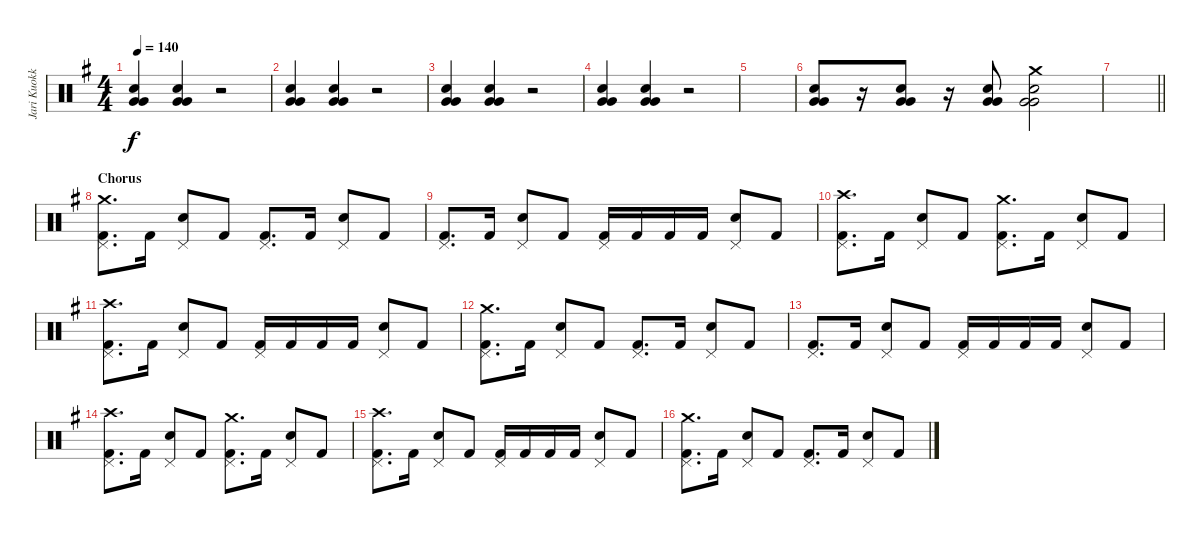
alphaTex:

\track ("Jari Kuokkanen" "Jari Kuokk") {instrument percussion}
\staff {score}
\articulation defaults
\ts (4 4)
\tempo 140
\clef neutral
\ks eminor
("Snare (hit) 2" "Very Low Tom (hit)" "Very Low Tom (hit)").4{dy f} ("Snare (hit) 2" "Very Low Tom (hit)" "Very Low Tom (hit)").4 r.2 |
("Snare (hit) 2" "Very Low Tom (hit)" "Very Low Tom (hit)").4 ("Snare (hit) 2" "Very Low Tom (hit)" "Very Low Tom (hit)").4 r.2 |
("Snare (hit) 2" "Very Low Tom (hit)" "Very Low Tom (hit)").4 ("Snare (hit) 2" "Very Low Tom (hit)" "Very Low Tom (hit)").4 r.2 |
("Snare (hit) 2" "Very Low Tom (hit)" "Very Low Tom (hit)").4 ("Snare (hit) 2" "Very Low Tom (hit)" "Very Low Tom (hit)").4 r.2 |
|
("Snare (hit) 2" "Very Low Tom (hit)" "Very Low Tom (hit)").8 r.16 ("Snare (hit) 2" "Very Low Tom (hit)" "Very Low Tom (hit)").8 r.16 ("Snare (hit) 2" "Very Low Tom (hit)" "Very Low Tom (hit)").8 ("Crash medium (hit)" "Very Low Tom (hit)" "Very Low Tom (hit)" "Snare (hit) 2").2 |
\barLineRight lightlight
|
\section ("" "Chorus")
("Pedal Hi-Hat (hit)" "Crash medium (hit)" "Kick (hit) 2").8{d} "Kick (hit) 2".16 ("Pedal Hi-Hat (hit)" "Snare (hit) 2").8 "Kick (hit) 2".8 ("Pedal Hi-Hat (hit)" "Kick (hit) 2").8{d} "Kick (hit) 2".16 ("Pedal Hi-Hat (hit)" "Snare (hit) 2").8 "Kick (hit) 2".8 |
("Pedal Hi-Hat (hit)" "Kick (hit) 2").8{d} "Kick (hit) 2".16 ("Pedal Hi-Hat (hit)" "Snare (hit) 2").8 "Kick (hit) 2".8 ("Pedal Hi-Hat (hit)" "Kick (hit) 2").16 "Kick (hit) 2".16 "Kick (hit) 2".16 "Kick (hit) 2".16 ("Pedal Hi-Hat (hit)" "Snare (hit) 2").8 "Kick (hit) 2".8 |
("Crash high (hit)" "Pedal Hi-Hat (hit)" "Kick (hit) 2").8{d} "Kick (hit) 2".16 ("Pedal Hi-Hat (hit)" "Snare (hit) 2").8 "Kick (hit) 2".8 ("Crash medium (hit)" "Pedal Hi-Hat (hit)" "Kick (hit) 2").8{d} "Kick (hit) 2".16 ("Pedal Hi-Hat (hit)" "Snare (hit) 2").8 "Kick (hit) 2".8 |
("Crash high (hit)" "Pedal Hi-Hat (hit)" "Kick (hit) 2").8{d} "Kick (hit) 2".16 ("Pedal Hi-Hat (hit)" "Snare (hit) 2").8 "Kick (hit) 2".8 ("Pedal Hi-Hat (hit)" "Kick (hit) 2").16 "Kick (hit) 2".16 "Kick (hit) 2".16 "Kick (hit) 2".16 ("Pedal Hi-Hat (hit)" "Snare (hit) 2").8 "Kick (hit) 2".8 |
("Pedal Hi-Hat (hit)" "Crash medium (hit)" "Kick (hit) 2").8{d} "Kick (hit) 2".16 ("Pedal Hi-Hat (hit)" "Snare (hit) 2").8 "Kick (hit) 2".8 ("Pedal Hi-Hat (hit)" "Kick (hit) 2").8{d} "Kick (hit) 2".16 ("Pedal Hi-Hat (hit)" "Snare (hit) 2").8 "Kick (hit) 2".8 |
("Pedal Hi-Hat (hit)" "Kick (hit) 2").8{d} "Kick (hit) 2".16 ("Pedal Hi-Hat (hit)" "Snare (hit) 2").8 "Kick (hit) 2".8 ("Pedal Hi-Hat (hit)" "Kick (hit) 2").16 "Kick (hit) 2".16 "Kick (hit) 2".16 "Kick (hit) 2".16 ("Pedal Hi-Hat (hit)" "Snare (hit) 2").8 "Kick (hit) 2".8 |
("Crash high (hit)" "Pedal Hi-Hat (hit)" "Kick (hit) 2").8{d} "Kick (hit) 2".16 ("Pedal Hi-Hat (hit)" "Snare (hit) 2").8 "Kick (hit) 2".8 ("Crash medium (hit)" "Pedal Hi-Hat (hit)" "Kick (hit) 2").8{d} "Kick (hit) 2".16 ("Pedal Hi-Hat (hit)" "Snare (hit) 2").8 "Kick (hit) 2".8 |
("Crash high (hit)" "Pedal Hi-Hat (hit)" "Kick (hit) 2").8{d} "Kick (hit) 2".16 ("Pedal Hi-Hat (hit)" "Snare (hit) 2").8 "Kick (hit) 2".8 ("Pedal Hi-Hat (hit)" "Kick (hit) 2").16 "Kick (hit) 2".16 "Kick (hit) 2".16 "Kick (hit) 2".16 ("Pedal Hi-Hat (hit)" "Snare (hit) 2").8 "Kick (hit) 2".8 |
("Pedal Hi-Hat (hit)" "Crash medium (hit)" "Kick (hit) 2").8{d} "Kick (hit) 2".16 ("Pedal Hi-Hat (hit)" "Snare (hit) 2").8 "Kick (hit) 2".8 ("Pedal Hi-Hat (hit)" "Kick (hit) 2").8{d} "Kick (hit) 2".16 ("Pedal Hi-Hat (hit)" "Snare (hit) 2").8 "Kick (hit) 2".8
